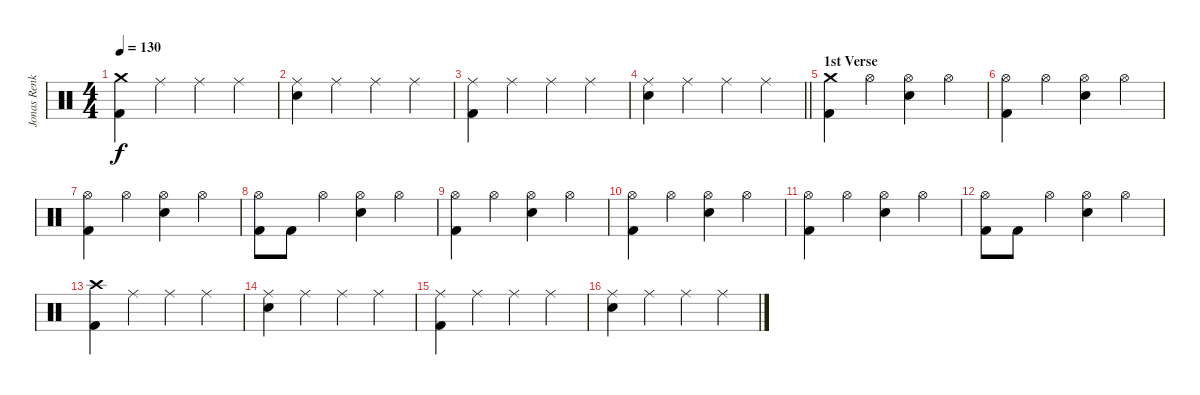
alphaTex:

\track ("Jonas Renkse" "Jonas Renk") {instrument percussion}
\staff {score}
\articulation defaults
\ts (4 4)
\tempo 130
\clef neutral
\ks c
("Crash medium (hit)" "Kick (hit) 2").4{dy f} "Ride (middle)".4 "Ride (middle)".4 "Ride (middle)".4 |
("Ride (middle)" "Electric Snare (hit)").4 "Ride (middle)".4 "Ride (middle)".4 "Ride (middle)".4 |
("Ride (middle)" "Kick (hit) 2").4 "Ride (middle)".4 "Ride (middle)".4 "Ride (middle)".4 |
\barLineRight lightlight
("Ride (middle)" "Electric Snare (hit)").4 "Ride (middle)".4 "Ride (middle)".4 "Ride (middle)".4 |
\section ("" "1st Verse")
("Crash medium (hit)" "Kick (hit) 2").4 "Hi-Hat (open)".4 ("Hi-Hat (open)" "Electric Snare (hit)").4 "Hi-Hat (open)".4 |
("Hi-Hat (open)" "Kick (hit) 2").4 "Hi-Hat (open)".4 ("Hi-Hat (open)" "Electric Snare (hit)").4 "Hi-Hat (open)".4 |
("Hi-Hat (open)" "Kick (hit) 2").4 "Hi-Hat (open)".4 ("Hi-Hat (open)" "Electric Snare (hit)").4 "Hi-Hat (open)".4 |
("Hi-Hat (open)" "Kick (hit) 2").8 "Kick (hit) 2".8 "Hi-Hat (open)".4 ("Hi-Hat (open)" "Electric Snare (hit)").4 "Hi-Hat (open)".4 |
("Hi-Hat (open)" "Kick (hit) 2").4 "Hi-Hat (open)".4 ("Hi-Hat (open)" "Electric Snare (hit)").4 "Hi-Hat (open)".4 |
("Hi-Hat (open)" "Kick (hit) 2").4 "Hi-Hat (open)".4 ("Hi-Hat (open)" "Electric Snare (hit)").4 "Hi-Hat (open)".4 |
("Hi-Hat (open)" "Kick (hit) 2").4 "Hi-Hat (open)".4 ("Hi-Hat (open)" "Electric Snare (hit)").4 "Hi-Hat (open)".4 |
("Hi-Hat (open)" "Kick (hit) 2").8 "Kick (hit) 2".8 "Hi-Hat (open)".4 ("Hi-Hat (open)" "Electric Snare (hit)").4 "Hi-Hat (open)".4 |
("Crash high (hit)" "Kick (hit) 2").4 "Ride (middle)".4 "Ride (middle)".4 "Ride (middle)".4 |
("Ride (middle)" "Electric Snare (hit)").4 "Ride (middle)".4 "Ride (middle)".4 "Ride (middle)".4 |
("Ride (middle)" "Kick (hit) 2").4 "Ride (middle)".4 "Ride (middle)".4 "Ride (middle)".4 |
("Ride (middle)" "Electric Snare (hit)").4 "Ride (middle)".4 "Ride (middle)".4 "Ride (middle)".4
